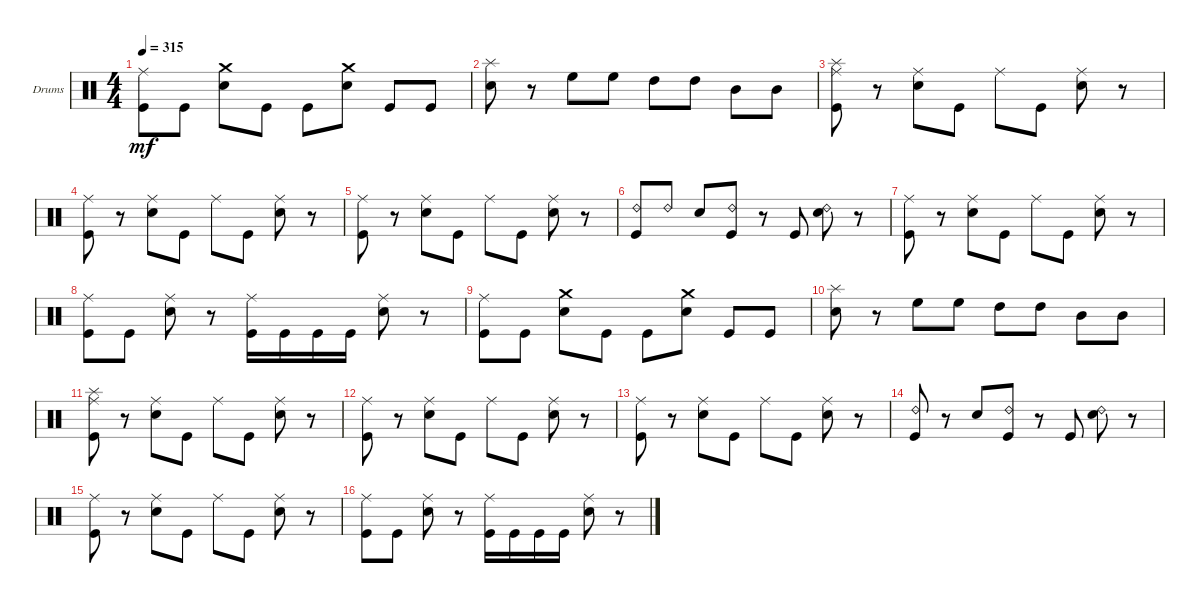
\bracketExtendMode groupsimilarinstruments
\firstSystemTrackNameOrientation horizontal
\otherSystemsTrackNameOrientation horizontal
\track ("Drumkit" "Drums") {instrument percussion}
\staff {score}
\articulation defaults
\ts (4 4)
\tempo 315
\clef neutral
\ks c
("Kick (hit)" "Ride (middle)").8{dy mf} "Kick (hit)".8 ("Snare (hit) 2" "Crash medium (hit)").8 "Kick (hit)".8 "Kick (hit)".8 ("Snare (hit) 2" "Crash medium (hit)").8 "Kick (hit)".8 "Kick (hit)".8 |
("Snare (hit) 2" "Splash (hit)").8 r.8 "High Floor Tom (hit)".8 "High Floor Tom (hit)".8 "High Tom (hit)".8 "High Tom (hit)".8 "Mid Tom (hit)".8 "Mid Tom (hit)".8 |
("Kick (hit)" "Ride (middle)" "Splash (hit)").8 r.8 ("Snare (hit) 2" "Ride (middle)").8 "Kick (hit)".8 "Ride (middle)".8 "Kick (hit)".8 ("Snare (hit) 2" "Ride (middle)").8 r.8 |
("Kick (hit)" "Ride (middle)").8 r.8 ("Snare (hit) 2" "Ride (middle)").8 "Kick (hit)".8 "Ride (middle)".8 "Kick (hit)".8 ("Snare (hit) 2" "Ride (middle)").8 r.8 |
("Kick (hit)" "Ride (middle)").8 r.8 ("Snare (hit) 2" "Ride (middle)").8 "Kick (hit)".8 "Ride (middle)".8 "Kick (hit)".8 ("Snare (hit) 2" "Ride (middle)").8 r.8 |
("Kick (hit)" "Ride (bell) 2").8 "Ride (bell) 2".8 "Snare (hit) 2".8 ("Kick (hit)" "Ride (bell) 2").8 r.8 "Kick (hit)".8 ("Snare (hit) 2" "Ride (bell) 2").8 r.8 |
("Kick (hit)" "Ride (middle)").8 r.8 ("Snare (hit) 2" "Ride (middle)").8 "Kick (hit)".8 "Ride (middle)".8 "Kick (hit)".8 ("Snare (hit) 2" "Ride (middle)").8 r.8 |
("Kick (hit)" "Ride (middle)").8 "Kick (hit)".8 ("Snare (hit) 2" "Ride (middle)").8 r.8 ("Kick (hit)" "Ride (middle)").16 "Kick (hit)".16 "Kick (hit)".16 "Kick (hit)".16 ("Snare (hit) 2" "Ride (middle)").8 r.8 |
("Kick (hit)" "Ride (middle)").8 "Kick (hit)".8 ("Snare (hit) 2" "Crash medium (hit)").8 "Kick (hit)".8 "Kick (hit)".8 ("Snare (hit) 2" "Crash medium (hit)").8 "Kick (hit)".8 "Kick (hit)".8 |
("Snare (hit) 2" "Splash (hit)").8 r.8 "High Floor Tom (hit)".8 "High Floor Tom (hit)".8 "High Tom (hit)".8 "High Tom (hit)".8 "Mid Tom (hit)".8 "Mid Tom (hit)".8 |
("Kick (hit)" "Ride (middle)" "Splash (hit)").8 r.8 ("Snare (hit) 2" "Ride (middle)").8 "Kick (hit)".8 "Ride (middle)".8 "Kick (hit)".8 ("Snare (hit) 2" "Ride (middle)").8 r.8 |
("Kick (hit)" "Ride (middle)").8 r.8 ("Snare (hit) 2" "Ride (middle)").8 "Kick (hit)".8 "Ride (middle)".8 "Kick (hit)".8 ("Snare (hit) 2" "Ride (middle)").8 r.8 |
("Kick (hit)" "Ride (middle)").8 r.8 ("Snare (hit) 2" "Ride (middle)").8 "Kick (hit)".8 "Ride (middle)".8 "Kick (hit)".8 ("Snare (hit) 2" "Ride (middle)").8 r.8 |
("Kick (hit)" "Ride (bell) 2").8 r.8 "Snare (hit) 2".8 ("Kick (hit)" "Ride (bell) 2").8 r.8 "Kick (hit)".8 ("Snare (hit) 2" "Ride (bell) 2").8 r.8 |
("Kick (hit)" "Ride (middle)").8 r.8 ("Snare (hit) 2" "Ride (middle)").8 "Kick (hit)".8 "Ride (middle)".8 "Kick (hit)".8 ("Snare (hit) 2" "Ride (middle)").8 r.8 |
("Kick (hit)" "Ride (middle)").8 "Kick (hit)".8 ("Snare (hit) 2" "Ride (middle)").8 r.8 ("Kick (hit)" "Ride (middle)").16 "Kick (hit)".16 "Kick (hit)".16 "Kick (hit)".16 ("Snare (hit) 2" "Ride (middle)").8 r.8
